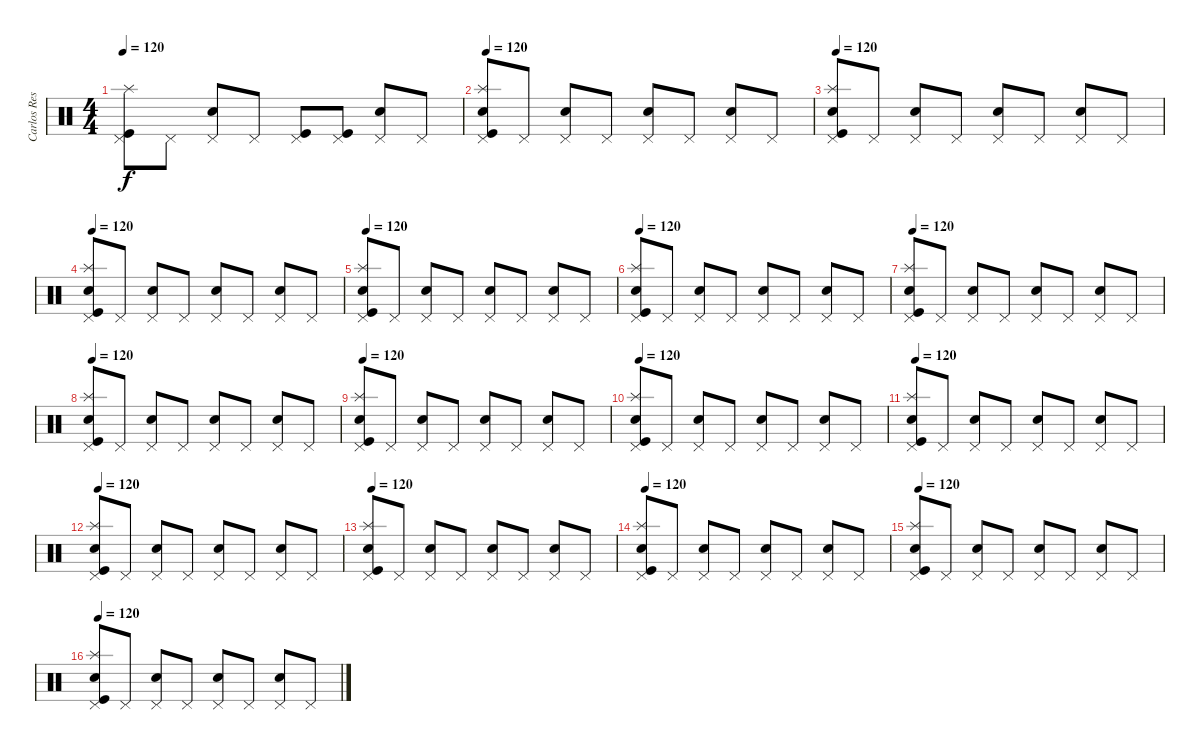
\track ("Carlos Restrepo" "Carlos Res") {instrument percussion}
\staff {score}
\articulation defaults
\ts (4 4)
\tempo 120
\clef neutral
\ks c
("Pedal Hi-Hat (hit)" "Kick (hit)" "Splash (hit)").8{dy f} "Pedal Hi-Hat (hit)".8 ("Pedal Hi-Hat (hit)" "Snare (hit) 2").8 "Pedal Hi-Hat (hit)".8 ("Pedal Hi-Hat (hit)" "Kick (hit)").8 ("Pedal Hi-Hat (hit)" "Kick (hit)").8 ("Pedal Hi-Hat (hit)" "Snare (hit) 2").8 "Pedal Hi-Hat (hit)".8 |
\tempo 120
("Pedal Hi-Hat (hit)" "Kick (hit)" "Splash (hit)" "Snare (hit) 2").8 "Pedal Hi-Hat (hit)".8 ("Pedal Hi-Hat (hit)" "Snare (hit) 2").8 "Pedal Hi-Hat (hit)".8 ("Pedal Hi-Hat (hit)" "Snare (hit) 2").8 "Pedal Hi-Hat (hit)".8 ("Pedal Hi-Hat (hit)" "Snare (hit) 2").8 "Pedal Hi-Hat (hit)".8 |
\tempo 120
("Pedal Hi-Hat (hit)" "Kick (hit)" "Splash (hit)" "Snare (hit) 2").8 "Pedal Hi-Hat (hit)".8 ("Pedal Hi-Hat (hit)" "Snare (hit) 2").8 "Pedal Hi-Hat (hit)".8 ("Pedal Hi-Hat (hit)" "Snare (hit) 2").8 "Pedal Hi-Hat (hit)".8 ("Pedal Hi-Hat (hit)" "Snare (hit) 2").8 "Pedal Hi-Hat (hit)".8 |
\tempo 120
("Pedal Hi-Hat (hit)" "Kick (hit)" "Splash (hit)" "Snare (hit) 2").8 "Pedal Hi-Hat (hit)".8 ("Pedal Hi-Hat (hit)" "Snare (hit) 2").8 "Pedal Hi-Hat (hit)".8 ("Pedal Hi-Hat (hit)" "Snare (hit) 2").8 "Pedal Hi-Hat (hit)".8 ("Pedal Hi-Hat (hit)" "Snare (hit) 2").8 "Pedal Hi-Hat (hit)".8 |
\tempo 120
("Pedal Hi-Hat (hit)" "Kick (hit)" "Splash (hit)" "Snare (hit) 2").8 "Pedal Hi-Hat (hit)".8 ("Pedal Hi-Hat (hit)" "Snare (hit) 2").8 "Pedal Hi-Hat (hit)".8 ("Pedal Hi-Hat (hit)" "Snare (hit) 2").8 "Pedal Hi-Hat (hit)".8 ("Pedal Hi-Hat (hit)" "Snare (hit) 2").8 "Pedal Hi-Hat (hit)".8 |
\tempo 120
("Pedal Hi-Hat (hit)" "Kick (hit)" "Splash (hit)" "Snare (hit) 2").8 "Pedal Hi-Hat (hit)".8 ("Pedal Hi-Hat (hit)" "Snare (hit) 2").8 "Pedal Hi-Hat (hit)".8 ("Pedal Hi-Hat (hit)" "Snare (hit) 2").8 "Pedal Hi-Hat (hit)".8 ("Pedal Hi-Hat (hit)" "Snare (hit) 2").8 "Pedal Hi-Hat (hit)".8 |
\tempo 120
("Pedal Hi-Hat (hit)" "Kick (hit)" "Splash (hit)" "Snare (hit) 2").8 "Pedal Hi-Hat (hit)".8 ("Pedal Hi-Hat (hit)" "Snare (hit) 2").8 "Pedal Hi-Hat (hit)".8 ("Pedal Hi-Hat (hit)" "Snare (hit) 2").8 "Pedal Hi-Hat (hit)".8 ("Pedal Hi-Hat (hit)" "Snare (hit) 2").8 "Pedal Hi-Hat (hit)".8 |
\tempo 120
("Pedal Hi-Hat (hit)" "Kick (hit)" "Splash (hit)" "Snare (hit) 2").8 "Pedal Hi-Hat (hit)".8 ("Pedal Hi-Hat (hit)" "Snare (hit) 2").8 "Pedal Hi-Hat (hit)".8 ("Pedal Hi-Hat (hit)" "Snare (hit) 2").8 "Pedal Hi-Hat (hit)".8 ("Pedal Hi-Hat (hit)" "Snare (hit) 2").8 "Pedal Hi-Hat (hit)".8 |
\tempo 120
("Pedal Hi-Hat (hit)" "Kick (hit)" "Splash (hit)" "Snare (hit) 2").8 "Pedal Hi-Hat (hit)".8 ("Pedal Hi-Hat (hit)" "Snare (hit) 2").8 "Pedal Hi-Hat (hit)".8 ("Pedal Hi-Hat (hit)" "Snare (hit) 2").8 "Pedal Hi-Hat (hit)".8 ("Pedal Hi-Hat (hit)" "Snare (hit) 2").8 "Pedal Hi-Hat (hit)".8 |
\tempo 120
("Pedal Hi-Hat (hit)" "Kick (hit)" "Splash (hit)" "Snare (hit) 2").8 "Pedal Hi-Hat (hit)".8 ("Pedal Hi-Hat (hit)" "Snare (hit) 2").8 "Pedal Hi-Hat (hit)".8 ("Pedal Hi-Hat (hit)" "Snare (hit) 2").8 "Pedal Hi-Hat (hit)".8 ("Pedal Hi-Hat (hit)" "Snare (hit) 2").8 "Pedal Hi-Hat (hit)".8 |
\tempo 120
("Pedal Hi-Hat (hit)" "Kick (hit)" "Splash (hit)" "Snare (hit) 2").8 "Pedal Hi-Hat (hit)".8 ("Pedal Hi-Hat (hit)" "Snare (hit) 2").8 "Pedal Hi-Hat (hit)".8 ("Pedal Hi-Hat (hit)" "Snare (hit) 2").8 "Pedal Hi-Hat (hit)".8 ("Pedal Hi-Hat (hit)" "Snare (hit) 2").8 "Pedal Hi-Hat (hit)".8 |
\tempo 120
("Pedal Hi-Hat (hit)" "Kick (hit)" "Splash (hit)" "Snare (hit) 2").8 "Pedal Hi-Hat (hit)".8 ("Pedal Hi-Hat (hit)" "Snare (hit) 2").8 "Pedal Hi-Hat (hit)".8 ("Pedal Hi-Hat (hit)" "Snare (hit) 2").8 "Pedal Hi-Hat (hit)".8 ("Pedal Hi-Hat (hit)" "Snare (hit) 2").8 "Pedal Hi-Hat (hit)".8 |
\tempo 120
("Pedal Hi-Hat (hit)" "Kick (hit)" "Splash (hit)" "Snare (hit) 2").8 "Pedal Hi-Hat (hit)".8 ("Pedal Hi-Hat (hit)" "Snare (hit) 2").8 "Pedal Hi-Hat (hit)".8 ("Pedal Hi-Hat (hit)" "Snare (hit) 2").8 "Pedal Hi-Hat (hit)".8 ("Pedal Hi-Hat (hit)" "Snare (hit) 2").8 "Pedal Hi-Hat (hit)".8 |
\tempo 120
("Pedal Hi-Hat (hit)" "Kick (hit)" "Splash (hit)" "Snare (hit) 2").8 "Pedal Hi-Hat (hit)".8 ("Pedal Hi-Hat (hit)" "Snare (hit) 2").8 "Pedal Hi-Hat (hit)".8 ("Pedal Hi-Hat (hit)" "Snare (hit) 2").8 "Pedal Hi-Hat (hit)".8 ("Pedal Hi-Hat (hit)" "Snare (hit) 2").8 "Pedal Hi-Hat (hit)".8 |
\tempo 120
("Pedal Hi-Hat (hit)" "Kick (hit)" "Splash (hit)" "Snare (hit) 2").8 "Pedal Hi-Hat (hit)".8 ("Pedal Hi-Hat (hit)" "Snare (hit) 2").8 "Pedal Hi-Hat (hit)".8 ("Pedal Hi-Hat (hit)" "Snare (hit) 2").8 "Pedal Hi-Hat (hit)".8 ("Pedal Hi-Hat (hit)" "Snare (hit) 2").8 "Pedal Hi-Hat (hit)".8 |
\tempo 120
("Pedal Hi-Hat (hit)" "Kick (hit)" "Splash (hit)" "Snare (hit) 2").8 "Pedal Hi-Hat (hit)".8 ("Pedal Hi-Hat (hit)" "Snare (hit) 2").8 "Pedal Hi-Hat (hit)".8 ("Pedal Hi-Hat (hit)" "Snare (hit) 2").8 "Pedal Hi-Hat (hit)".8 ("Pedal Hi-Hat (hit)" "Snare (hit) 2").8 "Pedal Hi-Hat (hit)".8
